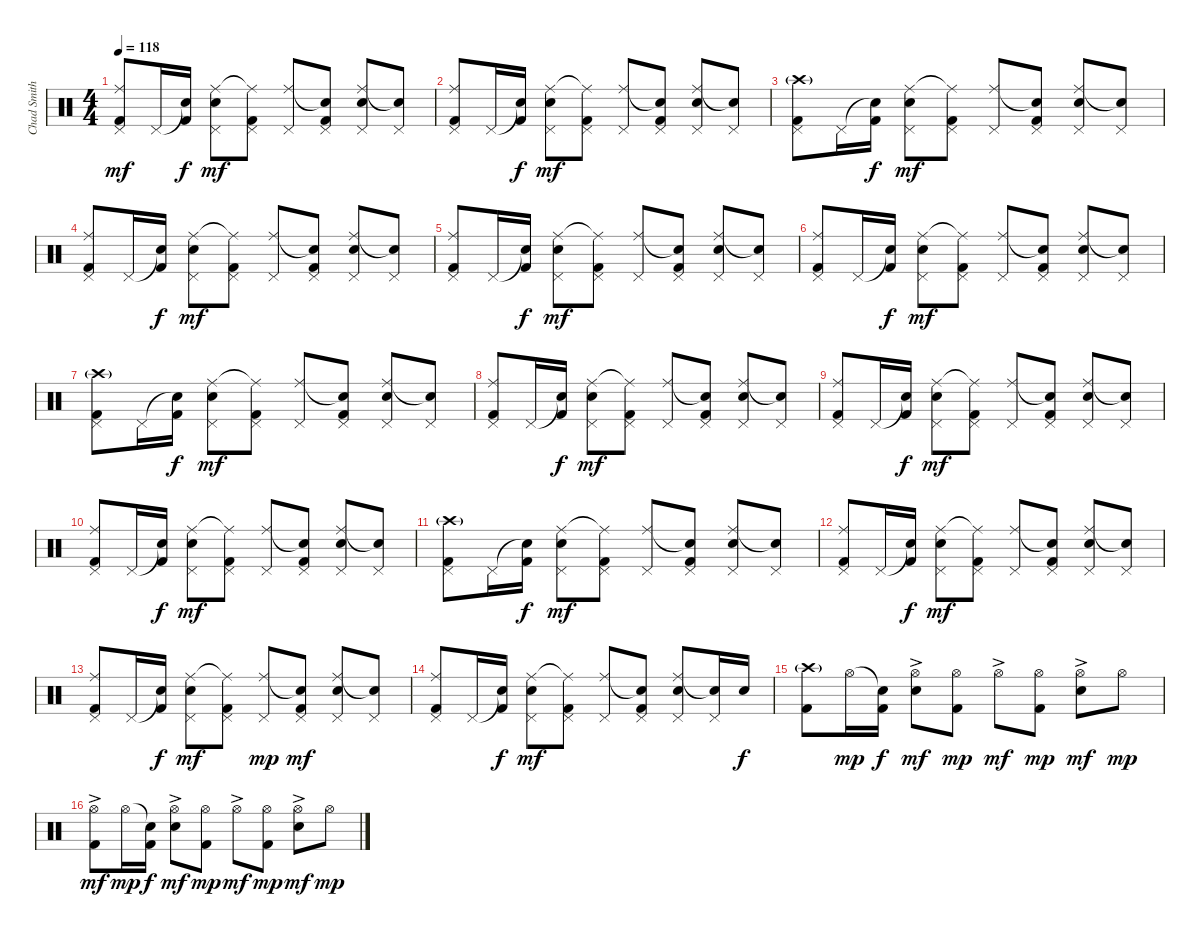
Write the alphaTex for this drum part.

\track ("Chad Smith" "Chad Smith") {instrument percussion}
\staff {score}
\articulation defaults
\ts (4 4)
\tempo 118
\clef neutral
\ks c
("Ride (middle)" "Pedal Hi-Hat (hit)" "Kick (hit) 2").8{dy mf} "Pedal Hi-Hat (hit)".16 ("Snare (hit)"{t} "Kick (hit) 2").16{dy f} ("Ride (middle)" "Pedal Hi-Hat (hit)" "Snare (hit) 2").8{dy mf} ("Ride (middle)"{t} "Pedal Hi-Hat (hit)" "Kick (hit) 2").8 ("Ride (middle)" "Pedal Hi-Hat (hit)").8 ("Snare (hit)"{t} "Pedal Hi-Hat (hit)" "Kick (hit) 2").8 ("Ride (middle)" "Pedal Hi-Hat (hit)" "Snare (hit) 2").8 ("Snare (hit)"{t} "Pedal Hi-Hat (hit)").8 |
("Ride (middle)" "Pedal Hi-Hat (hit)" "Kick (hit) 2").8 "Pedal Hi-Hat (hit)".16 ("Snare (hit)"{t} "Kick (hit) 2").16{dy f} ("Ride (middle)" "Pedal Hi-Hat (hit)" "Snare (hit) 2").8{dy mf} ("Ride (middle)"{t} "Pedal Hi-Hat (hit)" "Kick (hit) 2").8 ("Ride (middle)" "Pedal Hi-Hat (hit)").8 ("Snare (hit)"{t} "Pedal Hi-Hat (hit)" "Kick (hit) 2").8 ("Ride (middle)" "Pedal Hi-Hat (hit)" "Snare (hit) 2").8 ("Snare (hit)"{t} "Pedal Hi-Hat (hit)").8 |
("Crash high (hit)"{g} "Pedal Hi-Hat (hit)" "Kick (hit) 2").8 "Pedal Hi-Hat (hit)".16 ("Snare (hit)"{t} "Kick (hit) 2").16{dy f} ("Ride (middle)" "Pedal Hi-Hat (hit)" "Snare (hit) 2").8{dy mf} ("Ride (middle)"{t} "Pedal Hi-Hat (hit)" "Kick (hit) 2").8 ("Ride (middle)" "Pedal Hi-Hat (hit)").8 ("Snare (hit)"{t} "Pedal Hi-Hat (hit)" "Kick (hit) 2").8 ("Ride (middle)" "Pedal Hi-Hat (hit)" "Snare (hit) 2").8 ("Snare (hit)"{t} "Pedal Hi-Hat (hit)").8 |
("Ride (middle)" "Pedal Hi-Hat (hit)" "Kick (hit) 2").8 "Pedal Hi-Hat (hit)".16 ("Snare (hit)"{t} "Kick (hit) 2").16{dy f} ("Ride (middle)" "Pedal Hi-Hat (hit)" "Snare (hit) 2").8{dy mf} ("Ride (middle)"{t} "Pedal Hi-Hat (hit)" "Kick (hit) 2").8 ("Ride (middle)" "Pedal Hi-Hat (hit)").8 ("Snare (hit)"{t} "Pedal Hi-Hat (hit)" "Kick (hit) 2").8 ("Ride (middle)" "Pedal Hi-Hat (hit)" "Snare (hit) 2").8 ("Snare (hit)"{t} "Pedal Hi-Hat (hit)").8 |
("Ride (middle)" "Pedal Hi-Hat (hit)" "Kick (hit) 2").8 "Pedal Hi-Hat (hit)".16 ("Snare (hit)"{t} "Kick (hit) 2").16{dy f} ("Ride (middle)" "Pedal Hi-Hat (hit)" "Snare (hit) 2").8{dy mf} ("Ride (middle)"{t} "Pedal Hi-Hat (hit)" "Kick (hit) 2").8 ("Ride (middle)" "Pedal Hi-Hat (hit)").8 ("Snare (hit)"{t} "Pedal Hi-Hat (hit)" "Kick (hit) 2").8 ("Ride (middle)" "Pedal Hi-Hat (hit)" "Snare (hit) 2").8 ("Snare (hit)"{t} "Pedal Hi-Hat (hit)").8 |
("Ride (middle)" "Pedal Hi-Hat (hit)" "Kick (hit) 2").8 "Pedal Hi-Hat (hit)".16 ("Snare (hit)"{t} "Kick (hit) 2").16{dy f} ("Ride (middle)" "Pedal Hi-Hat (hit)" "Snare (hit) 2").8{dy mf} ("Ride (middle)"{t} "Pedal Hi-Hat (hit)" "Kick (hit) 2").8 ("Ride (middle)" "Pedal Hi-Hat (hit)").8 ("Snare (hit)"{t} "Pedal Hi-Hat (hit)" "Kick (hit) 2").8 ("Ride (middle)" "Pedal Hi-Hat (hit)" "Snare (hit) 2").8 ("Snare (hit)"{t} "Pedal Hi-Hat (hit)").8 |
("Crash high (hit)"{g} "Pedal Hi-Hat (hit)" "Kick (hit) 2").8 "Pedal Hi-Hat (hit)".16 ("Snare (hit)"{t} "Kick (hit) 2").16{dy f} ("Ride (middle)" "Pedal Hi-Hat (hit)" "Snare (hit) 2").8{dy mf} ("Ride (middle)"{t} "Pedal Hi-Hat (hit)" "Kick (hit) 2").8 ("Ride (middle)" "Pedal Hi-Hat (hit)").8 ("Snare (hit)"{t} "Pedal Hi-Hat (hit)" "Kick (hit) 2").8 ("Ride (middle)" "Pedal Hi-Hat (hit)" "Snare (hit) 2").8 ("Snare (hit)"{t} "Pedal Hi-Hat (hit)").8 |
("Ride (middle)" "Pedal Hi-Hat (hit)" "Kick (hit) 2").8 "Pedal Hi-Hat (hit)".16 ("Snare (hit)"{t} "Kick (hit) 2").16{dy f} ("Ride (middle)" "Pedal Hi-Hat (hit)" "Snare (hit) 2").8{dy mf} ("Ride (middle)"{t} "Pedal Hi-Hat (hit)" "Kick (hit) 2").8 ("Ride (middle)" "Pedal Hi-Hat (hit)").8 ("Snare (hit)"{t} "Pedal Hi-Hat (hit)" "Kick (hit) 2").8 ("Ride (middle)" "Pedal Hi-Hat (hit)" "Snare (hit) 2").8 ("Snare (hit)"{t} "Pedal Hi-Hat (hit)").8 |
("Ride (middle)" "Pedal Hi-Hat (hit)" "Kick (hit) 2").8 "Pedal Hi-Hat (hit)".16 ("Snare (hit)"{t} "Kick (hit) 2").16{dy f} ("Ride (middle)" "Pedal Hi-Hat (hit)" "Snare (hit) 2").8{dy mf} ("Ride (middle)"{t} "Pedal Hi-Hat (hit)" "Kick (hit) 2").8 ("Ride (middle)" "Pedal Hi-Hat (hit)").8 ("Snare (hit)"{t} "Pedal Hi-Hat (hit)" "Kick (hit) 2").8 ("Ride (middle)" "Pedal Hi-Hat (hit)" "Snare (hit) 2").8 ("Snare (hit)"{t} "Pedal Hi-Hat (hit)").8 |
("Ride (middle)" "Pedal Hi-Hat (hit)" "Kick (hit) 2").8 "Pedal Hi-Hat (hit)".16 ("Snare (hit)"{t} "Kick (hit) 2").16{dy f} ("Ride (middle)" "Pedal Hi-Hat (hit)" "Snare (hit) 2").8{dy mf} ("Ride (middle)"{t} "Pedal Hi-Hat (hit)" "Kick (hit) 2").8 ("Ride (middle)" "Pedal Hi-Hat (hit)").8 ("Snare (hit)"{t} "Pedal Hi-Hat (hit)" "Kick (hit) 2").8 ("Ride (middle)" "Pedal Hi-Hat (hit)" "Snare (hit) 2").8 ("Snare (hit)"{t} "Pedal Hi-Hat (hit)").8 |
("Crash high (hit)"{g} "Pedal Hi-Hat (hit)" "Kick (hit) 2").8 "Pedal Hi-Hat (hit)".16 ("Snare (hit)"{t} "Kick (hit) 2").16{dy f} ("Ride (middle)" "Pedal Hi-Hat (hit)" "Snare (hit) 2").8{dy mf} ("Ride (middle)"{t} "Pedal Hi-Hat (hit)" "Kick (hit) 2").8 ("Ride (middle)" "Pedal Hi-Hat (hit)").8 ("Snare (hit)"{t} "Pedal Hi-Hat (hit)" "Kick (hit) 2").8 ("Ride (middle)" "Pedal Hi-Hat (hit)" "Snare (hit) 2").8 ("Snare (hit)"{t} "Pedal Hi-Hat (hit)").8 |
("Ride (middle)" "Pedal Hi-Hat (hit)" "Kick (hit) 2").8 "Pedal Hi-Hat (hit)".16 ("Snare (hit)"{t} "Kick (hit) 2").16{dy f} ("Ride (middle)" "Pedal Hi-Hat (hit)" "Snare (hit) 2").8{dy mf} ("Ride (middle)"{t} "Pedal Hi-Hat (hit)" "Kick (hit) 2").8 ("Ride (middle)" "Pedal Hi-Hat (hit)").8 ("Snare (hit)"{t} "Pedal Hi-Hat (hit)" "Kick (hit) 2").8 ("Ride (middle)" "Pedal Hi-Hat (hit)" "Snare (hit) 2").8 ("Snare (hit)"{t} "Pedal Hi-Hat (hit)").8 |
("Ride (middle)" "Pedal Hi-Hat (hit)" "Kick (hit) 2").8 "Pedal Hi-Hat (hit)".16 ("Snare (hit)"{t} "Kick (hit) 2").16{dy f} ("Ride (middle)" "Pedal Hi-Hat (hit)" "Snare (hit) 2").8{dy mf} ("Ride (middle)"{t} "Pedal Hi-Hat (hit)" "Kick (hit) 2").8 ("Ride (middle)" "Pedal Hi-Hat (hit)").8{dy mp} ("Snare (hit)"{t} "Pedal Hi-Hat (hit)" "Kick (hit) 2").8{dy mf} ("Ride (middle)" "Pedal Hi-Hat (hit)" "Snare (hit) 2").8 ("Snare (hit)"{t} "Pedal Hi-Hat (hit)").8 |
("Ride (middle)" "Pedal Hi-Hat (hit)" "Kick (hit) 2").8 "Pedal Hi-Hat (hit)".16 ("Snare (hit)"{t} "Kick (hit) 2").16{dy f} ("Ride (middle)" "Pedal Hi-Hat (hit)" "Snare (hit) 2").8{dy mf} ("Ride (middle)"{t} "Pedal Hi-Hat (hit)" "Kick (hit) 2").8 ("Ride (middle)" "Pedal Hi-Hat (hit)").8 ("Snare (hit)"{t} "Pedal Hi-Hat (hit)" "Kick (hit) 2").8 ("Ride (middle)" "Pedal Hi-Hat (hit)" "Snare (hit) 2").8 ("Snare (hit)"{t} "Pedal Hi-Hat (hit)").16 "Electric Snare (hit)".16{dy f} |
("Crash high (hit)"{g} "Kick (hit) 2").8 "Hi-Hat (open)".16{dy mp} ("Snare (hit)"{t} "Kick (hit) 2").16{dy f} ("Hi-Hat (open)"{ac} "Electric Snare (hit)").8{dy mf} ("Hi-Hat (open)" "Kick (hit) 2").8{dy mp} "Hi-Hat (open)"{ac}.8{dy mf} ("Hi-Hat (open)" "Kick (hit) 2").8{dy mp} ("Hi-Hat (open)"{ac} "Electric Snare (hit)").8{dy mf} "Hi-Hat (open)".8{dy mp} |
("Hi-Hat (open)"{ac} "Kick (hit) 2").8{dy mf} "Hi-Hat (open)".16{dy mp} ("Snare (hit)"{t} "Kick (hit) 2").16{dy f} ("Hi-Hat (open)"{ac} "Electric Snare (hit)").8{dy mf} ("Hi-Hat (open)" "Kick (hit) 2").8{dy mp} "Hi-Hat (open)"{ac}.8{dy mf} ("Hi-Hat (open)" "Kick (hit) 2").8{dy mp} ("Hi-Hat (open)"{ac} "Electric Snare (hit)").8{dy mf} "Hi-Hat (open)".8{dy mp}
